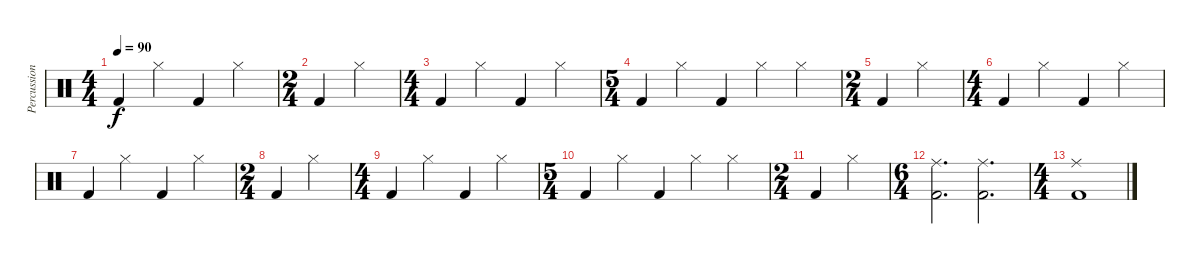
\track ("Percussion" "Percussion") {instrument percussion}
\staff {score}
\articulation defaults
\ts (4 4)
\tempo 90
\clef neutral
\ks c "Kick (hit) 2".4{dy f volume 3} "Hi-Hat (closed)".4{volume 13} "Kick (hit) 2".4{volume 3} "Hi-Hat (closed)".4{volume 13}
|
\ts (2 4)
"Kick (hit) 2".4{volume 3} "Hi-Hat (closed)".4{volume 13} |
\ts (4 4)
"Kick (hit) 2".4{volume 3} "Hi-Hat (closed)".4{volume 13} "Kick (hit) 2".4{volume 3} "Hi-Hat (closed)".4{volume 13} |
\ts (5 4)
"Kick (hit) 2".4{volume 3} "Hi-Hat (closed)".4{volume 13} "Kick (hit) 2".4{volume 3} "Hi-Hat (closed)".4{volume 13} "Hi-Hat (closed)".4 |
\ts (2 4)
"Kick (hit) 2".4{volume 3} "Hi-Hat (closed)".4{volume 13} |
\ts (4 4)
"Kick (hit) 2".4{volume 3} "Hi-Hat (closed)".4{volume 13} "Kick (hit) 2".4{volume 3} "Hi-Hat (closed)".4{volume 13} |
"Kick (hit) 2".4{volume 3} "Hi-Hat (closed)".4{volume 13} "Kick (hit) 2".4{volume 3} "Hi-Hat (closed)".4{volume 13} |
\ts (2 4)
"Kick (hit) 2".4{volume 3} "Hi-Hat (closed)".4{volume 13} |
\ts (4 4)
"Kick (hit) 2".4{volume 3} "Hi-Hat (closed)".4{volume 13} "Kick (hit) 2".4{volume 3} "Hi-Hat (closed)".4{volume 13} |
\ts (5 4)
"Kick (hit) 2".4{volume 3} "Hi-Hat (closed)".4{volume 13} "Kick (hit) 2".4{volume 3} "Hi-Hat (closed)".4{volume 13} "Hi-Hat (closed)".4 |
\ts (2 4)
"Kick (hit) 2".4{volume 3} "Hi-Hat (closed)".4{volume 13} |
\ts (6 4)
("Ride (middle)" "Kick (hit) 2").2{d volume 3} ("Ride (middle)" "Kick (hit) 2").2{d} |
\ts (4 4)
("Ride (middle)" "Kick (hit) 2").1
